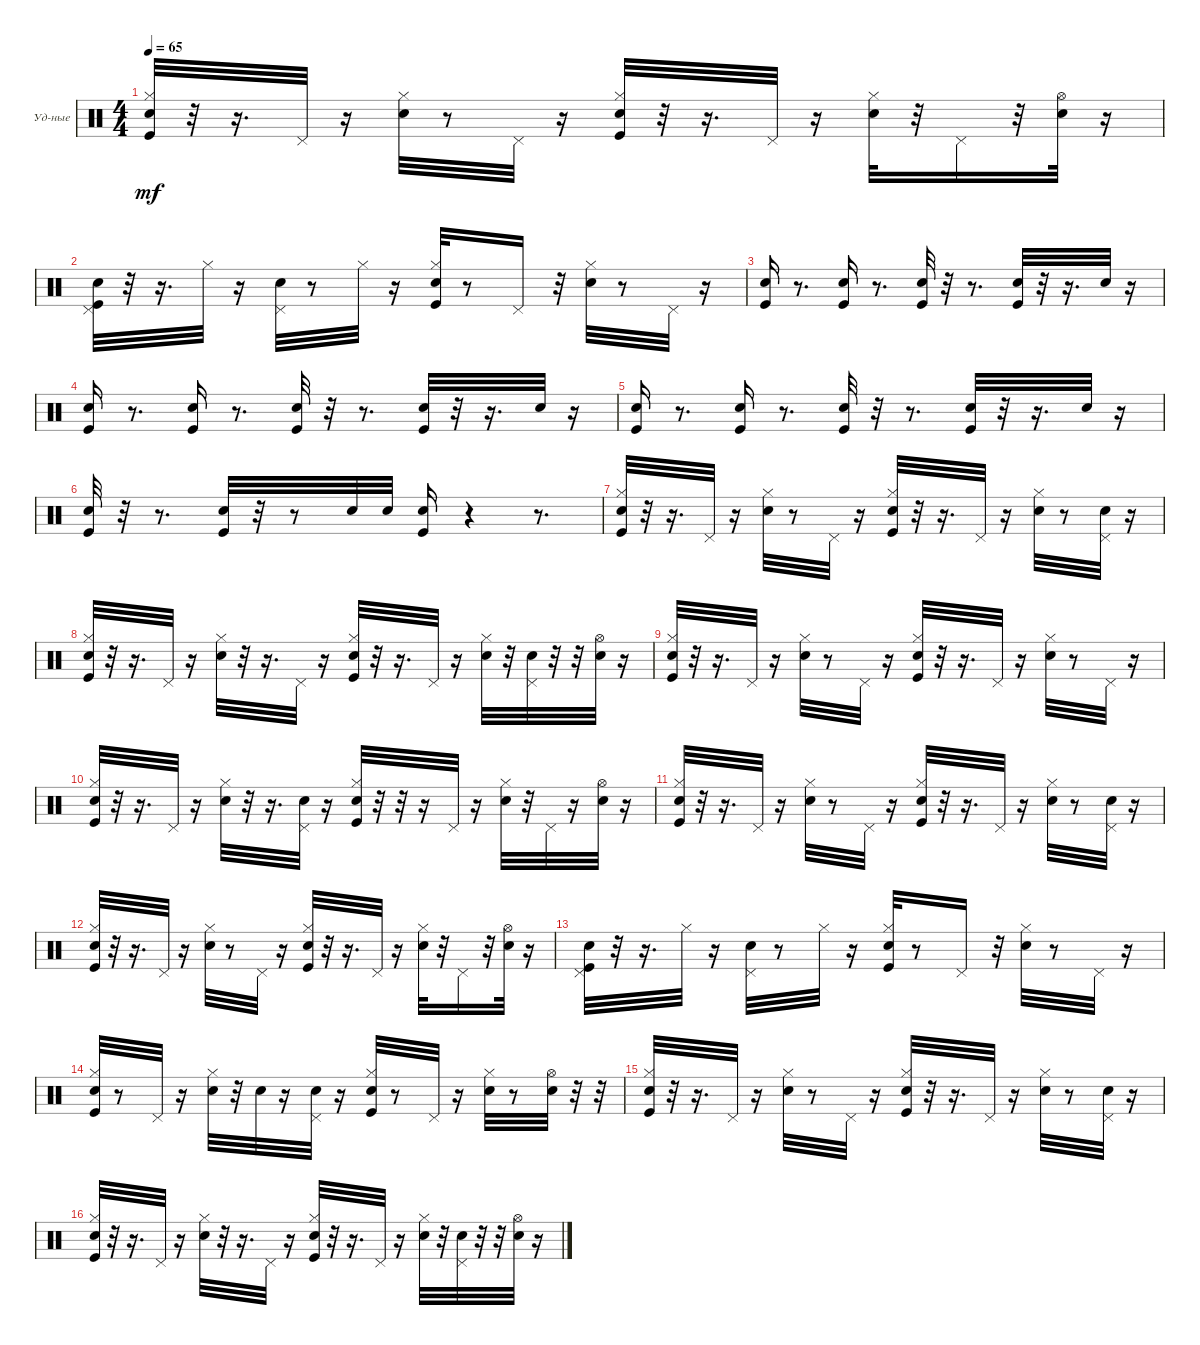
\bracketExtendMode groupsimilarinstruments
\firstSystemTrackNameOrientation horizontal
\otherSystemsTrackNameOrientation horizontal
\track ("Ударные" "Уд-ные") {instrument percussion}
\staff {score}
\articulation defaults
\ts (4 4)
\tempo 65
\clef neutral
\ks c
("Kick (hit)" "Hi-Hat (closed)" "Snare (hit) 2").32{dy mf} r.32 r.16{d} "Pedal Hi-Hat (hit)".32 r.16 ("Hi-Hat (closed)" "Snare (hit) 2").32 r.8 "Pedal Hi-Hat (hit)".32 r.16 ("Kick (hit)" "Hi-Hat (closed)" "Snare (hit) 2").32 r.32 r.16{d} "Pedal Hi-Hat (hit)".32 r.16 ("Hi-Hat (closed)" "Snare (hit) 2").32 r.32 "Pedal Hi-Hat (hit)".16 r.32 ("Hi-Hat (open)" "Snare (hit) 2").32 r.16 |
("Kick (hit)" "Pedal Hi-Hat (hit)" "Snare (hit) 2").32 r.32 r.16{d} "Hi-Hat (closed)".32 r.16 ("Pedal Hi-Hat (hit)" "Snare (hit) 2").32 r.8 "Hi-Hat (closed)".32 r.16 ("Hi-Hat (closed)" "Kick (hit)" "Snare (hit) 2").32 r.8 "Pedal Hi-Hat (hit)".16 r.32 ("Hi-Hat (closed)" "Snare (hit) 2").32 r.8 "Pedal Hi-Hat (hit)".32 r.16 |
("Kick (hit)" "Snare (hit) 2").16 r.8{d} ("Kick (hit)" "Snare (hit) 2").16 r.8{d} ("Kick (hit)" "Snare (hit) 2").32 r.32 r.8{d} ("Kick (hit)" "Snare (hit) 2").32 r.32 r.16{d} "Snare (hit) 2".32 r.16 |
("Kick (hit)" "Snare (hit) 2").16 r.8{d} ("Kick (hit)" "Snare (hit) 2").16 r.8{d} ("Kick (hit)" "Snare (hit) 2").32 r.32 r.8{d} ("Kick (hit)" "Snare (hit) 2").32 r.32 r.16{d} "Snare (hit) 2".32 r.16 |
("Kick (hit)" "Snare (hit) 2").16 r.8{d} ("Kick (hit)" "Snare (hit) 2").16 r.8{d} ("Kick (hit)" "Snare (hit) 2").32 r.32 r.8{d} ("Kick (hit)" "Snare (hit) 2").32 r.32 r.16{d} "Snare (hit) 2".32 r.16 |
("Kick (hit)" "Snare (hit) 2").32 r.32 r.8{d} ("Kick (hit)" "Snare (hit) 2").32 r.32 r.8 "Snare (hit) 2".32 "Snare (hit) 2".32 ("Kick (hit)" "Snare (hit) 2").16 r.4 r.8{d} |
("Hi-Hat (closed)" "Kick (hit)" "Snare (hit) 2").32 r.32 r.16{d} "Pedal Hi-Hat (hit)".32 r.16 ("Hi-Hat (closed)" "Snare (hit) 2").32 r.8 "Pedal Hi-Hat (hit)".32 r.16 ("Kick (hit)" "Hi-Hat (closed)" "Snare (hit) 2").32 r.32 r.16{d} "Pedal Hi-Hat (hit)".32 r.16 ("Hi-Hat (closed)" "Snare (hit) 2").32 r.8 ("Pedal Hi-Hat (hit)" "Snare (hit) 2").32 r.16 |
("Kick (hit)" "Hi-Hat (closed)" "Snare (hit) 2").32 r.32 r.16{d} "Pedal Hi-Hat (hit)".32 r.16 ("Hi-Hat (closed)" "Snare (hit) 2").32 r.32 r.16{d} "Pedal Hi-Hat (hit)".32 r.16 ("Kick (hit)" "Hi-Hat (closed)" "Snare (hit) 2").32 r.32 r.16{d} "Pedal Hi-Hat (hit)".32 r.16 ("Hi-Hat (closed)" "Snare (hit) 2").32 r.32 ("Pedal Hi-Hat (hit)" "Snare (hit) 2").32 r.32 r.32 ("Hi-Hat (open)" "Snare (hit) 2").32 r.16 |
("Kick (hit)" "Hi-Hat (closed)" "Snare (hit) 2").32 r.32 r.16{d} "Pedal Hi-Hat (hit)".32 r.16 ("Hi-Hat (closed)" "Snare (hit) 2").32 r.8 "Pedal Hi-Hat (hit)".32 r.16 ("Kick (hit)" "Hi-Hat (closed)" "Snare (hit) 2").32 r.32 r.16{d} "Pedal Hi-Hat (hit)".32 r.16 ("Hi-Hat (closed)" "Snare (hit) 2").32 r.8 "Pedal Hi-Hat (hit)".32 r.16 |
("Kick (hit)" "Hi-Hat (closed)" "Snare (hit) 2").32 r.32 r.16{d} "Pedal Hi-Hat (hit)".32 r.16 ("Hi-Hat (closed)" "Snare (hit) 2").32 r.32 r.16{d} ("Pedal Hi-Hat (hit)" "Snare (hit) 2").32 r.16 ("Hi-Hat (closed)" "Kick (hit)" "Snare (hit) 2").32 r.32 r.32 r.16 "Pedal Hi-Hat (hit)".32 r.16 ("Hi-Hat (closed)" "Snare (hit) 2").32 r.32 "Pedal Hi-Hat (hit)".32 r.16 ("Hi-Hat (open)" "Snare (hit) 2").32 r.16 |
("Kick (hit)" "Hi-Hat (closed)" "Snare (hit) 2").32 r.32 r.16{d} "Pedal Hi-Hat (hit)".32 r.16 ("Hi-Hat (closed)" "Snare (hit) 2").32 r.8 "Pedal Hi-Hat (hit)".32 r.16 ("Hi-Hat (closed)" "Kick (hit)" "Snare (hit) 2").32 r.32 r.16{d} "Pedal Hi-Hat (hit)".32 r.16 ("Hi-Hat (closed)" "Snare (hit) 2").32 r.8 ("Pedal Hi-Hat (hit)" "Snare (hit) 2").32 r.16 |
("Kick (hit)" "Hi-Hat (closed)" "Snare (hit) 2").32 r.32 r.16{d} "Pedal Hi-Hat (hit)".32 r.16 ("Hi-Hat (closed)" "Snare (hit) 2").32 r.8 "Pedal Hi-Hat (hit)".32 r.16 ("Kick (hit)" "Hi-Hat (closed)" "Snare (hit) 2").32 r.32 r.16{d} "Pedal Hi-Hat (hit)".32 r.16 ("Hi-Hat (closed)" "Snare (hit) 2").32 r.32 "Pedal Hi-Hat (hit)".16 r.32 ("Hi-Hat (open)" "Snare (hit) 2").32 r.16 |
("Kick (hit)" "Pedal Hi-Hat (hit)" "Snare (hit) 2").32 r.32 r.16{d} "Hi-Hat (closed)".32 r.16 ("Pedal Hi-Hat (hit)" "Snare (hit) 2").32 r.8 "Hi-Hat (closed)".32 r.16 ("Hi-Hat (closed)" "Kick (hit)" "Snare (hit) 2").32 r.8 "Pedal Hi-Hat (hit)".16 r.32 ("Hi-Hat (closed)" "Snare (hit) 2").32 r.8 "Pedal Hi-Hat (hit)".32 r.16 |
("Kick (hit)" "Hi-Hat (closed)" "Snare (hit) 2").32 r.8 "Pedal Hi-Hat (hit)".32 r.16 ("Hi-Hat (closed)" "Snare (hit) 2").32 r.32 "Snare (hit) 2".32 r.16 ("Pedal Hi-Hat (hit)" "Snare (hit) 2").32 r.16 ("Kick (hit)" "Hi-Hat (closed)" "Snare (hit) 2").32 r.8 "Pedal Hi-Hat (hit)".32 r.16 ("Hi-Hat (closed)" "Snare (hit) 2").32 r.8 ("Hi-Hat (open)" "Snare (hit) 2").32 r.32 r.32 |
("Hi-Hat (closed)" "Kick (hit)" "Snare (hit) 2").32 r.32 r.16{d} "Pedal Hi-Hat (hit)".32 r.16 ("Hi-Hat (closed)" "Snare (hit) 2").32 r.8 "Pedal Hi-Hat (hit)".32 r.16 ("Kick (hit)" "Hi-Hat (closed)" "Snare (hit) 2").32 r.32 r.16{d} "Pedal Hi-Hat (hit)".32 r.16 ("Hi-Hat (closed)" "Snare (hit) 2").32 r.8 ("Pedal Hi-Hat (hit)" "Snare (hit) 2").32 r.16 |
("Kick (hit)" "Hi-Hat (closed)" "Snare (hit) 2").32 r.32 r.16{d} "Pedal Hi-Hat (hit)".32 r.16 ("Hi-Hat (closed)" "Snare (hit) 2").32 r.32 r.16{d} "Pedal Hi-Hat (hit)".32 r.16 ("Kick (hit)" "Hi-Hat (closed)" "Snare (hit) 2").32 r.32 r.16{d} "Pedal Hi-Hat (hit)".32 r.16 ("Hi-Hat (closed)" "Snare (hit) 2").32 r.32 ("Pedal Hi-Hat (hit)" "Snare (hit) 2").32 r.32 r.32 ("Hi-Hat (open)" "Snare (hit) 2").32 r.16
